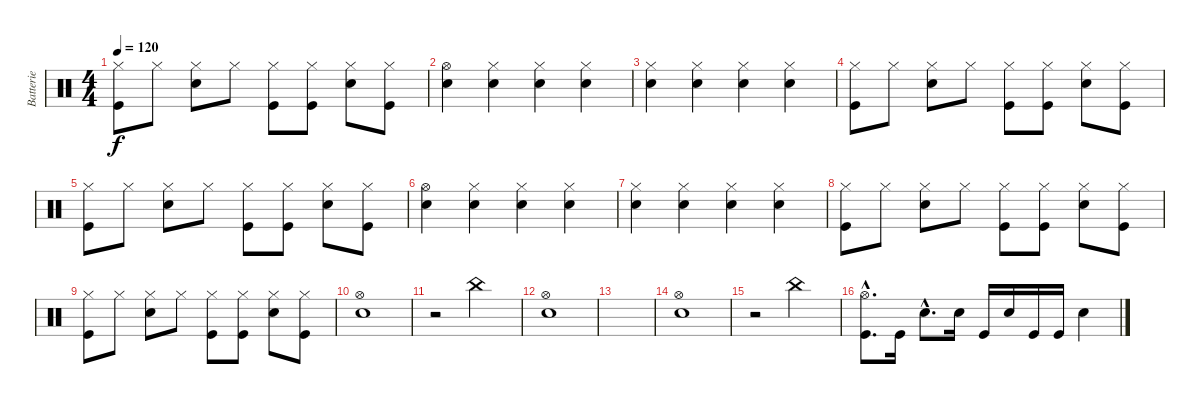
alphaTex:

\track ("Batterie" "Batterie") {instrument percussion}
\staff {score}
\articulation defaults
\ts (4 4)
\tempo 120
\clef neutral
\ks c
("Hi-Hat (closed)" "Kick (hit)").8{dy f} "Hi-Hat (closed)".8 ("Hi-Hat (closed)" "Snare (hit) 2").8 "Hi-Hat (closed)".8 ("Hi-Hat (closed)" "Kick (hit)").8 ("Hi-Hat (closed)" "Kick (hit)").8 ("Hi-Hat (closed)" "Snare (hit) 2").8 ("Hi-Hat (closed)" "Kick (hit)").8 |
("Hi-Hat (open)" "Snare (hit) 2").4 ("Hi-Hat (closed)" "Snare (hit) 2").4 ("Hi-Hat (closed)" "Snare (hit) 2").4 ("Hi-Hat (closed)" "Snare (hit) 2").4 |
("Hi-Hat (closed)" "Snare (hit) 2").4 ("Hi-Hat (closed)" "Snare (hit) 2").4 ("Hi-Hat (closed)" "Snare (hit) 2").4 ("Hi-Hat (closed)" "Snare (hit) 2").4 |
("Hi-Hat (closed)" "Kick (hit)").8 "Hi-Hat (closed)".8 ("Hi-Hat (closed)" "Snare (hit) 2").8 "Hi-Hat (closed)".8 ("Hi-Hat (closed)" "Kick (hit)").8 ("Hi-Hat (closed)" "Kick (hit)").8 ("Hi-Hat (closed)" "Snare (hit) 2").8 ("Hi-Hat (closed)" "Kick (hit)").8 |
("Hi-Hat (closed)" "Kick (hit)").8 "Hi-Hat (closed)".8 ("Hi-Hat (closed)" "Snare (hit) 2").8 "Hi-Hat (closed)".8 ("Hi-Hat (closed)" "Kick (hit)").8 ("Hi-Hat (closed)" "Kick (hit)").8 ("Hi-Hat (closed)" "Snare (hit) 2").8 ("Hi-Hat (closed)" "Kick (hit)").8 |
("Hi-Hat (open)" "Snare (hit) 2").4 ("Hi-Hat (closed)" "Snare (hit) 2").4 ("Hi-Hat (closed)" "Snare (hit) 2").4 ("Hi-Hat (closed)" "Snare (hit) 2").4 |
("Hi-Hat (closed)" "Snare (hit) 2").4 ("Hi-Hat (closed)" "Snare (hit) 2").4 ("Hi-Hat (closed)" "Snare (hit) 2").4 ("Hi-Hat (closed)" "Snare (hit) 2").4 |
("Hi-Hat (closed)" "Kick (hit)").8 "Hi-Hat (closed)".8 ("Hi-Hat (closed)" "Snare (hit) 2").8 "Hi-Hat (closed)".8 ("Hi-Hat (closed)" "Kick (hit)").8 ("Hi-Hat (closed)" "Kick (hit)").8 ("Hi-Hat (closed)" "Snare (hit) 2").8 ("Hi-Hat (closed)" "Kick (hit)").8 |
("Hi-Hat (closed)" "Kick (hit)").8 "Hi-Hat (closed)".8 ("Hi-Hat (closed)" "Snare (hit) 2").8 "Hi-Hat (closed)".8 ("Hi-Hat (closed)" "Kick (hit)").8 ("Hi-Hat (closed)" "Kick (hit)").8 ("Hi-Hat (closed)" "Snare (hit) 2").8 ("Hi-Hat (closed)" "Kick (hit)").8 |
("Hi-Hat (open)" "Snare (hit) 2").1 |
r.2 "China (hit)".2 |
("Hi-Hat (open)" "Snare (hit) 2").1 |
|
("Hi-Hat (open)" "Snare (hit) 2").1 |
r.2 "China (hit)".2 |
("Hi-Hat (open)"{hac} "Kick (hit)"{hac}).8{d} "Kick (hit)".16 "Snare (hit) 2"{hac}.8{d} "Snare (hit) 2".16 "Kick (hit)".16 "Snare (hit) 2".16 "Kick (hit)".16 "Kick (hit)".16 "Snare (hit) 2".4
